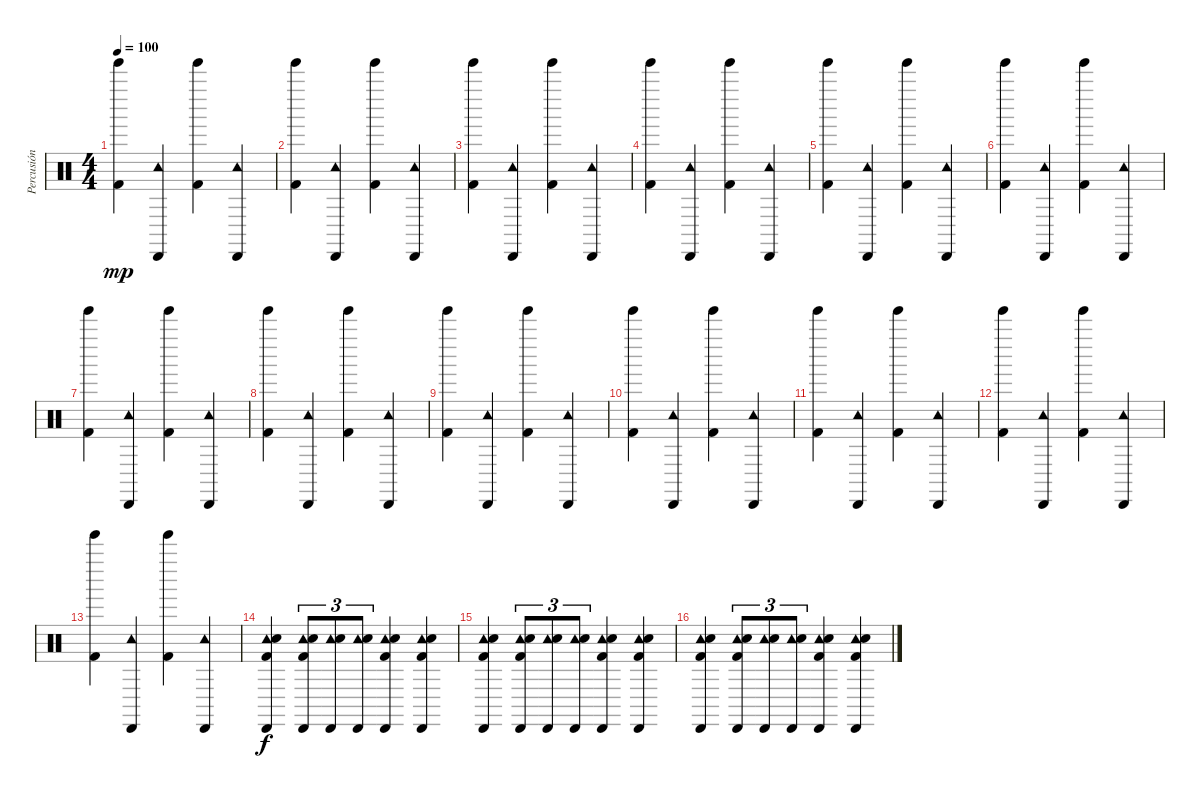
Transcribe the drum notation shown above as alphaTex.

\track ("Percusión" "Percusión") {instrument percussion}
\staff {score}
\articulation defaults
\ts (4 4)
\tempo 100
\clef neutral
\ks c
("Tinkle Bell (hit)" "Kick (hit) 2").4{dy mp} ("Cabasa (hit)" "Tambourine (hit)").4 ("Tinkle Bell (hit)" "Kick (hit) 2").4 ("Cabasa (hit)" "Tambourine (hit)").4 |
("Tinkle Bell (hit)" "Kick (hit) 2").4 ("Cabasa (hit)" "Tambourine (hit)").4 ("Tinkle Bell (hit)" "Kick (hit) 2").4 ("Cabasa (hit)" "Tambourine (hit)").4 |
("Tinkle Bell (hit)" "Kick (hit) 2").4 ("Cabasa (hit)" "Tambourine (hit)").4 ("Tinkle Bell (hit)" "Kick (hit) 2").4 ("Cabasa (hit)" "Tambourine (hit)").4 |
("Tinkle Bell (hit)" "Kick (hit) 2").4 ("Cabasa (hit)" "Tambourine (hit)").4 ("Tinkle Bell (hit)" "Kick (hit) 2").4 ("Cabasa (hit)" "Tambourine (hit)").4 |
("Tinkle Bell (hit)" "Kick (hit) 2").4 ("Cabasa (hit)" "Tambourine (hit)").4 ("Tinkle Bell (hit)" "Kick (hit) 2").4 ("Cabasa (hit)" "Tambourine (hit)").4 |
("Tinkle Bell (hit)" "Kick (hit) 2").4 ("Cabasa (hit)" "Tambourine (hit)").4 ("Tinkle Bell (hit)" "Kick (hit) 2").4 ("Cabasa (hit)" "Tambourine (hit)").4 |
("Tinkle Bell (hit)" "Kick (hit) 2").4 ("Cabasa (hit)" "Tambourine (hit)").4 ("Tinkle Bell (hit)" "Kick (hit) 2").4 ("Cabasa (hit)" "Tambourine (hit)").4 |
("Tinkle Bell (hit)" "Kick (hit) 2").4 ("Cabasa (hit)" "Tambourine (hit)").4 ("Tinkle Bell (hit)" "Kick (hit) 2").4 ("Cabasa (hit)" "Tambourine (hit)").4 |
("Tinkle Bell (hit)" "Kick (hit) 2").4 ("Cabasa (hit)" "Tambourine (hit)").4 ("Tinkle Bell (hit)" "Kick (hit) 2").4 ("Cabasa (hit)" "Tambourine (hit)").4 |
("Tinkle Bell (hit)" "Kick (hit) 2").4 ("Cabasa (hit)" "Tambourine (hit)").4 ("Tinkle Bell (hit)" "Kick (hit) 2").4 ("Cabasa (hit)" "Tambourine (hit)").4 |
("Tinkle Bell (hit)" "Kick (hit) 2").4 ("Cabasa (hit)" "Tambourine (hit)").4 ("Tinkle Bell (hit)" "Kick (hit) 2").4 ("Cabasa (hit)" "Tambourine (hit)").4 |
("Tinkle Bell (hit)" "Kick (hit) 2").4 ("Cabasa (hit)" "Tambourine (hit)").4 ("Tinkle Bell (hit)" "Kick (hit) 2").4 ("Cabasa (hit)" "Tambourine (hit)").4 |
("Tinkle Bell (hit)" "Kick (hit) 2").4 ("Cabasa (hit)" "Tambourine (hit)").4 ("Tinkle Bell (hit)" "Kick (hit) 2").4 ("Cabasa (hit)" "Tambourine (hit)").4 |
("Cabasa (hit)" "Tambourine (hit)" "Electric Snare (hit)" "Kick (hit) 2").4{dy f} ("Cabasa (hit)" "Tambourine (hit)" "Electric Snare (hit)" "Kick (hit) 2").8{tu (3 2)} ("Cabasa (hit)" "Tambourine (hit)" "Electric Snare (hit)").8{tu (3 2)} ("Cabasa (hit)" "Tambourine (hit)" "Electric Snare (hit)").8{tu (3 2)} ("Cabasa (hit)" "Tambourine (hit)" "Electric Snare (hit)" "Kick (hit) 2").4 ("Cabasa (hit)" "Tambourine (hit)" "Electric Snare (hit)" "Kick (hit) 2").4 |
("Cabasa (hit)" "Tambourine (hit)" "Electric Snare (hit)" "Kick (hit) 2").4 ("Cabasa (hit)" "Tambourine (hit)" "Electric Snare (hit)" "Kick (hit) 2").8{tu (3 2)} ("Cabasa (hit)" "Tambourine (hit)" "Electric Snare (hit)").8{tu (3 2)} ("Cabasa (hit)" "Tambourine (hit)" "Electric Snare (hit)").8{tu (3 2)} ("Cabasa (hit)" "Tambourine (hit)" "Electric Snare (hit)" "Kick (hit) 2").4 ("Cabasa (hit)" "Tambourine (hit)" "Electric Snare (hit)" "Kick (hit) 2").4 |
("Cabasa (hit)" "Tambourine (hit)" "Electric Snare (hit)" "Kick (hit) 2").4 ("Cabasa (hit)" "Tambourine (hit)" "Electric Snare (hit)" "Kick (hit) 2").8{tu (3 2)} ("Cabasa (hit)" "Tambourine (hit)" "Electric Snare (hit)").8{tu (3 2)} ("Cabasa (hit)" "Tambourine (hit)" "Electric Snare (hit)").8{tu (3 2)} ("Cabasa (hit)" "Tambourine (hit)" "Electric Snare (hit)" "Kick (hit) 2").4 ("Cabasa (hit)" "Tambourine (hit)" "Electric Snare (hit)" "Kick (hit) 2").4
